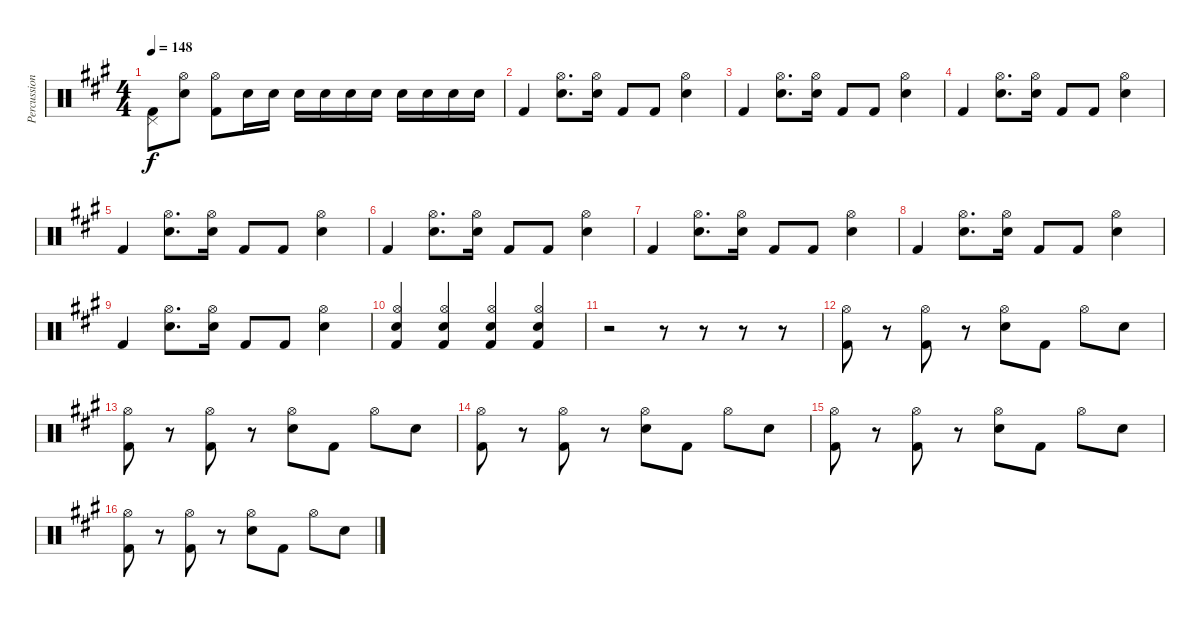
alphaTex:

\track ("Percussion" "Percussion") {instrument percussion}
\staff {score}
\articulation defaults
\ts (4 4)
\tempo 148
\clef neutral
\ks a
("Pedal Hi-Hat (hit)" "Kick (hit) 2").8{dy f} ("Hi-Hat (open)" "Electric Snare (hit)").8 ("Hi-Hat (open)" "Kick (hit) 2").8 "Electric Snare (hit)".16 "Electric Snare (hit)".16 "Electric Snare (hit)".16 "Electric Snare (hit)".16 "Electric Snare (hit)".16 "Electric Snare (hit)".16 "Electric Snare (hit)".16 "Electric Snare (hit)".16 "Electric Snare (hit)".16 "Electric Snare (hit)".16 |
"Kick (hit) 2".4 ("Hi-Hat (open)" "Electric Snare (hit)").8{d} ("Hi-Hat (open)" "Electric Snare (hit)").16 "Kick (hit) 2".8 "Kick (hit) 2".8 ("Hi-Hat (open)" "Electric Snare (hit)").4 |
"Kick (hit) 2".4 ("Hi-Hat (open)" "Electric Snare (hit)").8{d} ("Hi-Hat (open)" "Electric Snare (hit)").16 "Kick (hit) 2".8 "Kick (hit) 2".8 ("Hi-Hat (open)" "Electric Snare (hit)").4 |
"Kick (hit) 2".4 ("Hi-Hat (open)" "Electric Snare (hit)").8{d} ("Hi-Hat (open)" "Electric Snare (hit)").16 "Kick (hit) 2".8 "Kick (hit) 2".8 ("Hi-Hat (open)" "Electric Snare (hit)").4 |
"Kick (hit) 2".4 ("Hi-Hat (open)" "Electric Snare (hit)").8{d} ("Hi-Hat (open)" "Electric Snare (hit)").16 "Kick (hit) 2".8 "Kick (hit) 2".8 ("Hi-Hat (open)" "Electric Snare (hit)").4 |
"Kick (hit) 2".4 ("Hi-Hat (open)" "Electric Snare (hit)").8{d} ("Hi-Hat (open)" "Electric Snare (hit)").16 "Kick (hit) 2".8 "Kick (hit) 2".8 ("Hi-Hat (open)" "Electric Snare (hit)").4 |
"Kick (hit) 2".4 ("Hi-Hat (open)" "Electric Snare (hit)").8{d} ("Hi-Hat (open)" "Electric Snare (hit)").16 "Kick (hit) 2".8 "Kick (hit) 2".8 ("Hi-Hat (open)" "Electric Snare (hit)").4 |
"Kick (hit) 2".4 ("Hi-Hat (open)" "Electric Snare (hit)").8{d} ("Hi-Hat (open)" "Electric Snare (hit)").16 "Kick (hit) 2".8 "Kick (hit) 2".8 ("Hi-Hat (open)" "Electric Snare (hit)").4 |
"Kick (hit) 2".4 ("Hi-Hat (open)" "Electric Snare (hit)").8{d} ("Hi-Hat (open)" "Electric Snare (hit)").16 "Kick (hit) 2".8 "Kick (hit) 2".8 ("Hi-Hat (open)" "Electric Snare (hit)").4 |
("Hi-Hat (open)" "Electric Snare (hit)" "Kick (hit) 2").4 ("Hi-Hat (open)" "Electric Snare (hit)" "Kick (hit) 2").4 ("Hi-Hat (open)" "Electric Snare (hit)" "Kick (hit) 2").4 ("Hi-Hat (open)" "Electric Snare (hit)" "Kick (hit) 2").4 |
r.2 r.8 r.8 r.8 r.8 |
("Hi-Hat (open)" "Kick (hit) 2").8 r.8 ("Hi-Hat (open)" "Kick (hit) 2").8 r.8 ("Hi-Hat (open)" "Electric Snare (hit)").8 "Kick (hit) 2".8 "Hi-Hat (open)".8 "Electric Snare (hit)".8 |
("Hi-Hat (open)" "Kick (hit) 2").8 r.8 ("Hi-Hat (open)" "Kick (hit) 2").8 r.8 ("Hi-Hat (open)" "Electric Snare (hit)").8 "Kick (hit) 2".8 "Hi-Hat (open)".8 "Electric Snare (hit)".8 |
("Hi-Hat (open)" "Kick (hit) 2").8 r.8 ("Hi-Hat (open)" "Kick (hit) 2").8 r.8 ("Hi-Hat (open)" "Electric Snare (hit)").8 "Kick (hit) 2".8 "Hi-Hat (open)".8 "Electric Snare (hit)".8 |
("Hi-Hat (open)" "Kick (hit) 2").8 r.8 ("Hi-Hat (open)" "Kick (hit) 2").8 r.8 ("Hi-Hat (open)" "Electric Snare (hit)").8 "Kick (hit) 2".8 "Hi-Hat (open)".8 "Electric Snare (hit)".8 |
("Hi-Hat (open)" "Kick (hit) 2").8 r.8 ("Hi-Hat (open)" "Kick (hit) 2").8 r.8 ("Hi-Hat (open)" "Electric Snare (hit)").8 "Kick (hit) 2".8 "Hi-Hat (open)".8 "Electric Snare (hit)".8
